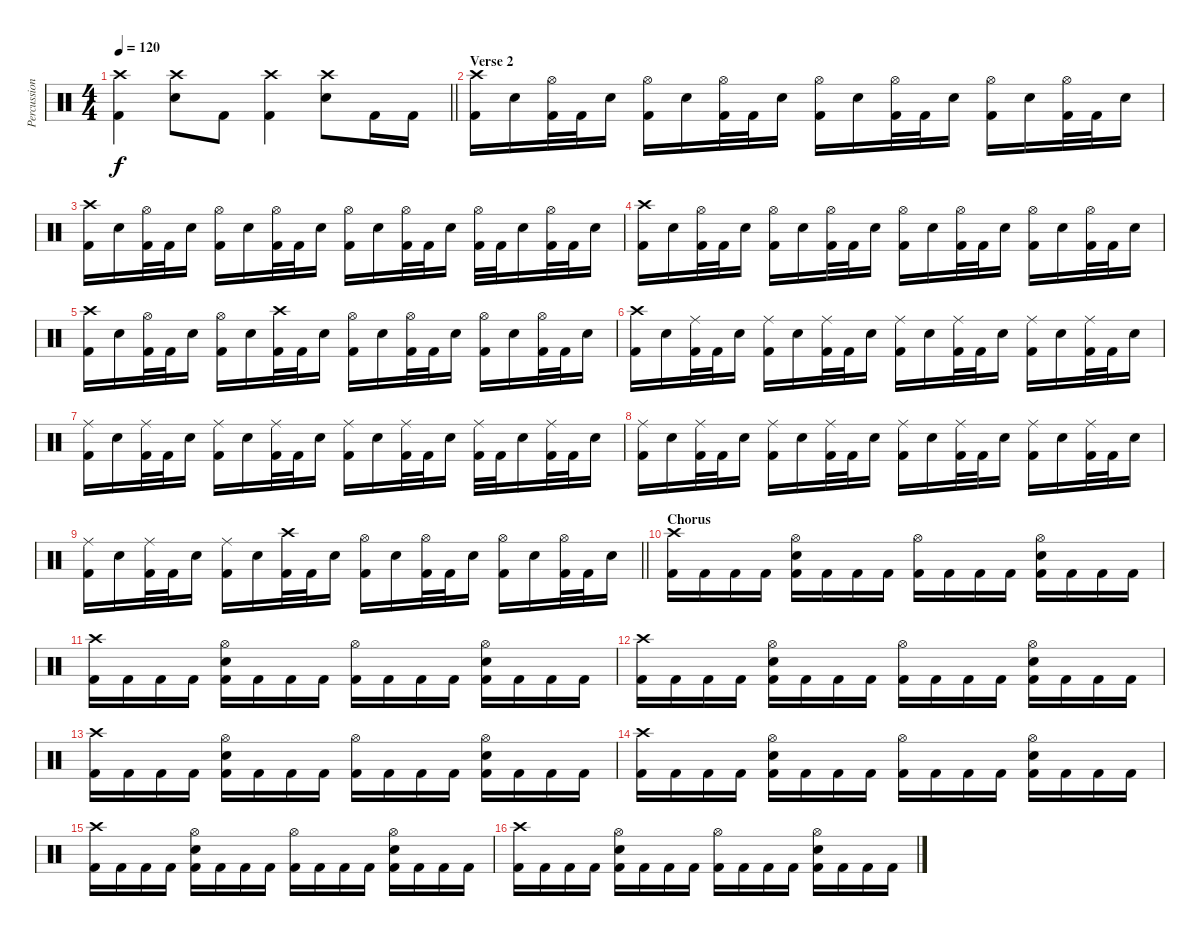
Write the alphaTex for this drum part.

\track ("Percussion" "Percussion") {instrument percussion}
\staff {score}
\articulation defaults
\ts (4 4)
\tempo 120
\clef neutral
\barLineRight lightlight
\ks c
("Crash high (hit)" "Kick (hit) 2").4{dy f} ("Crash high (hit)" "Electric Snare (hit)").8 "Kick (hit) 2".8 ("Crash high (hit)" "Kick (hit) 2").4 ("Crash high (hit)" "Electric Snare (hit)").8 "Kick (hit) 2".16 "Kick (hit) 2".16 |
\section ("" "Verse 2")
("Crash high (hit)" "Kick (hit) 2").16 "Electric Snare (hit)".16 ("Hi-Hat (open)" "Kick (hit) 2").32 "Kick (hit) 2".32 "Electric Snare (hit)".16 ("Hi-Hat (open)" "Kick (hit) 2").16 "Electric Snare (hit)".16 ("Hi-Hat (open)" "Kick (hit) 2").32 "Kick (hit) 2".32 "Electric Snare (hit)".16 ("Hi-Hat (open)" "Kick (hit) 2").16 "Electric Snare (hit)".16 ("Hi-Hat (open)" "Kick (hit) 2").32 "Kick (hit) 2".32 "Electric Snare (hit)".16 ("Hi-Hat (open)" "Kick (hit) 2").16 "Electric Snare (hit)".16 ("Hi-Hat (open)" "Kick (hit) 2").32 "Kick (hit) 2".32 "Electric Snare (hit)".16 |
("Crash high (hit)" "Kick (hit) 2").16 "Electric Snare (hit)".16 ("Hi-Hat (open)" "Kick (hit) 2").32 "Kick (hit) 2".32 "Electric Snare (hit)".16 ("Hi-Hat (open)" "Kick (hit) 2").16 "Electric Snare (hit)".16 ("Hi-Hat (open)" "Kick (hit) 2").32 "Kick (hit) 2".32 "Electric Snare (hit)".16 ("Hi-Hat (open)" "Kick (hit) 2").16 "Electric Snare (hit)".16 ("Hi-Hat (open)" "Kick (hit) 2").32 "Kick (hit) 2".32 "Electric Snare (hit)".16 ("Hi-Hat (open)" "Kick (hit) 2").32 "Kick (hit) 2".32 "Electric Snare (hit)".16 ("Hi-Hat (open)" "Kick (hit) 2").32 "Kick (hit) 2".32 "Electric Snare (hit)".16 |
("Crash high (hit)" "Kick (hit) 2").16 "Electric Snare (hit)".16 ("Hi-Hat (open)" "Kick (hit) 2").32 "Kick (hit) 2".32 "Electric Snare (hit)".16 ("Hi-Hat (open)" "Kick (hit) 2").16 "Electric Snare (hit)".16 ("Hi-Hat (open)" "Kick (hit) 2").32 "Kick (hit) 2".32 "Electric Snare (hit)".16 ("Hi-Hat (open)" "Kick (hit) 2").16 "Electric Snare (hit)".16 ("Hi-Hat (open)" "Kick (hit) 2").32 "Kick (hit) 2".32 "Electric Snare (hit)".16 ("Hi-Hat (open)" "Kick (hit) 2").16 "Electric Snare (hit)".16 ("Hi-Hat (open)" "Kick (hit) 2").32 "Kick (hit) 2".32 "Electric Snare (hit)".16 |
("Crash high (hit)" "Kick (hit) 2").16 "Electric Snare (hit)".16 ("Hi-Hat (open)" "Kick (hit) 2").32 "Kick (hit) 2".32 "Electric Snare (hit)".16 ("Hi-Hat (open)" "Kick (hit) 2").16 "Electric Snare (hit)".16 ("Crash high (hit)" "Kick (hit) 2").32 "Kick (hit) 2".32 "Electric Snare (hit)".16 ("Hi-Hat (open)" "Kick (hit) 2").16 "Electric Snare (hit)".16 ("Hi-Hat (open)" "Kick (hit) 2").32 "Kick (hit) 2".32 "Electric Snare (hit)".16 ("Hi-Hat (open)" "Kick (hit) 2").16 "Electric Snare (hit)".16 ("Hi-Hat (open)" "Kick (hit) 2").32 "Kick (hit) 2".32 "Electric Snare (hit)".16 |
("Crash high (hit)" "Kick (hit) 2").16 "Electric Snare (hit)".16 ("Ride (middle)" "Kick (hit) 2").32 "Kick (hit) 2".32 "Electric Snare (hit)".16 ("Ride (middle)" "Kick (hit) 2").16 "Electric Snare (hit)".16 ("Ride (middle)" "Kick (hit) 2").32 "Kick (hit) 2".32 "Electric Snare (hit)".16 ("Ride (middle)" "Kick (hit) 2").16 "Electric Snare (hit)".16 ("Ride (middle)" "Kick (hit) 2").32 "Kick (hit) 2".32 "Electric Snare (hit)".16 ("Ride (middle)" "Kick (hit) 2").16 "Electric Snare (hit)".16 ("Ride (middle)" "Kick (hit) 2").32 "Kick (hit) 2".32 "Electric Snare (hit)".16 |
("Ride (middle)" "Kick (hit) 2").16 "Electric Snare (hit)".16 ("Ride (middle)" "Kick (hit) 2").32 "Kick (hit) 2".32 "Electric Snare (hit)".16 ("Ride (middle)" "Kick (hit) 2").16 "Electric Snare (hit)".16 ("Ride (middle)" "Kick (hit) 2").32 "Kick (hit) 2".32 "Electric Snare (hit)".16 ("Ride (middle)" "Kick (hit) 2").16 "Electric Snare (hit)".16 ("Ride (middle)" "Kick (hit) 2").32 "Kick (hit) 2".32 "Electric Snare (hit)".16 ("Ride (middle)" "Kick (hit) 2").32 "Kick (hit) 2".32 "Electric Snare (hit)".16 ("Ride (middle)" "Kick (hit) 2").32 "Kick (hit) 2".32 "Electric Snare (hit)".16 |
("Ride (middle)" "Kick (hit) 2").16 "Electric Snare (hit)".16 ("Ride (middle)" "Kick (hit) 2").32 "Kick (hit) 2".32 "Electric Snare (hit)".16 ("Ride (middle)" "Kick (hit) 2").16 "Electric Snare (hit)".16 ("Ride (middle)" "Kick (hit) 2").32 "Kick (hit) 2".32 "Electric Snare (hit)".16 ("Ride (middle)" "Kick (hit) 2").16 "Electric Snare (hit)".16 ("Ride (middle)" "Kick (hit) 2").32 "Kick (hit) 2".32 "Electric Snare (hit)".16 ("Ride (middle)" "Kick (hit) 2").16 "Electric Snare (hit)".16 ("Ride (middle)" "Kick (hit) 2").32 "Kick (hit) 2".32 "Electric Snare (hit)".16 |
\barLineRight lightlight
("Ride (middle)" "Kick (hit) 2").16 "Electric Snare (hit)".16 ("Ride (middle)" "Kick (hit) 2").32 "Kick (hit) 2".32 "Electric Snare (hit)".16 ("Ride (middle)" "Kick (hit) 2").16 "Electric Snare (hit)".16 ("Crash high (hit)" "Kick (hit) 2").32 "Kick (hit) 2".32 "Electric Snare (hit)".16 ("Hi-Hat (open)" "Kick (hit) 2").16 "Electric Snare (hit)".16 ("Hi-Hat (open)" "Kick (hit) 2").32 "Kick (hit) 2".32 "Electric Snare (hit)".16 ("Hi-Hat (open)" "Kick (hit) 2").16 "Electric Snare (hit)".16 ("Hi-Hat (open)" "Kick (hit) 2").32 "Kick (hit) 2".32 "Electric Snare (hit)".16 |
\section ("" "Chorus")
("Crash high (hit)" "Kick (hit) 2").16 "Kick (hit) 2".16 "Kick (hit) 2".16 "Kick (hit) 2".16 ("Hi-Hat (open)" "Electric Snare (hit)" "Kick (hit) 2").16 "Kick (hit) 2".16 "Kick (hit) 2".16 "Kick (hit) 2".16 ("Hi-Hat (open)" "Kick (hit) 2").16 "Kick (hit) 2".16 "Kick (hit) 2".16 "Kick (hit) 2".16 ("Hi-Hat (open)" "Electric Snare (hit)" "Kick (hit) 2").16 "Kick (hit) 2".16 "Kick (hit) 2".16 "Kick (hit) 2".16 |
("Crash high (hit)" "Kick (hit) 2").16 "Kick (hit) 2".16 "Kick (hit) 2".16 "Kick (hit) 2".16 ("Hi-Hat (open)" "Electric Snare (hit)" "Kick (hit) 2").16 "Kick (hit) 2".16 "Kick (hit) 2".16 "Kick (hit) 2".16 ("Hi-Hat (open)" "Kick (hit) 2").16 "Kick (hit) 2".16 "Kick (hit) 2".16 "Kick (hit) 2".16 ("Hi-Hat (open)" "Electric Snare (hit)" "Kick (hit) 2").16 "Kick (hit) 2".16 "Kick (hit) 2".16 "Kick (hit) 2".16 |
("Crash high (hit)" "Kick (hit) 2").16 "Kick (hit) 2".16 "Kick (hit) 2".16 "Kick (hit) 2".16 ("Hi-Hat (open)" "Electric Snare (hit)" "Kick (hit) 2").16 "Kick (hit) 2".16 "Kick (hit) 2".16 "Kick (hit) 2".16 ("Hi-Hat (open)" "Kick (hit) 2").16 "Kick (hit) 2".16 "Kick (hit) 2".16 "Kick (hit) 2".16 ("Hi-Hat (open)" "Electric Snare (hit)" "Kick (hit) 2").16 "Kick (hit) 2".16 "Kick (hit) 2".16 "Kick (hit) 2".16 |
("Crash high (hit)" "Kick (hit) 2").16 "Kick (hit) 2".16 "Kick (hit) 2".16 "Kick (hit) 2".16 ("Hi-Hat (open)" "Electric Snare (hit)" "Kick (hit) 2").16 "Kick (hit) 2".16 "Kick (hit) 2".16 "Kick (hit) 2".16 ("Hi-Hat (open)" "Kick (hit) 2").16 "Kick (hit) 2".16 "Kick (hit) 2".16 "Kick (hit) 2".16 ("Hi-Hat (open)" "Electric Snare (hit)" "Kick (hit) 2").16 "Kick (hit) 2".16 "Kick (hit) 2".16 "Kick (hit) 2".16 |
("Crash high (hit)" "Kick (hit) 2").16 "Kick (hit) 2".16 "Kick (hit) 2".16 "Kick (hit) 2".16 ("Hi-Hat (open)" "Electric Snare (hit)" "Kick (hit) 2").16 "Kick (hit) 2".16 "Kick (hit) 2".16 "Kick (hit) 2".16 ("Hi-Hat (open)" "Kick (hit) 2").16 "Kick (hit) 2".16 "Kick (hit) 2".16 "Kick (hit) 2".16 ("Hi-Hat (open)" "Electric Snare (hit)" "Kick (hit) 2").16 "Kick (hit) 2".16 "Kick (hit) 2".16 "Kick (hit) 2".16 |
("Crash high (hit)" "Kick (hit) 2").16 "Kick (hit) 2".16 "Kick (hit) 2".16 "Kick (hit) 2".16 ("Hi-Hat (open)" "Electric Snare (hit)" "Kick (hit) 2").16 "Kick (hit) 2".16 "Kick (hit) 2".16 "Kick (hit) 2".16 ("Hi-Hat (open)" "Kick (hit) 2").16 "Kick (hit) 2".16 "Kick (hit) 2".16 "Kick (hit) 2".16 ("Hi-Hat (open)" "Electric Snare (hit)" "Kick (hit) 2").16 "Kick (hit) 2".16 "Kick (hit) 2".16 "Kick (hit) 2".16 |
("Crash high (hit)" "Kick (hit) 2").16 "Kick (hit) 2".16 "Kick (hit) 2".16 "Kick (hit) 2".16 ("Hi-Hat (open)" "Electric Snare (hit)" "Kick (hit) 2").16 "Kick (hit) 2".16 "Kick (hit) 2".16 "Kick (hit) 2".16 ("Hi-Hat (open)" "Kick (hit) 2").16 "Kick (hit) 2".16 "Kick (hit) 2".16 "Kick (hit) 2".16 ("Hi-Hat (open)" "Electric Snare (hit)" "Kick (hit) 2").16 "Kick (hit) 2".16 "Kick (hit) 2".16 "Kick (hit) 2".16
